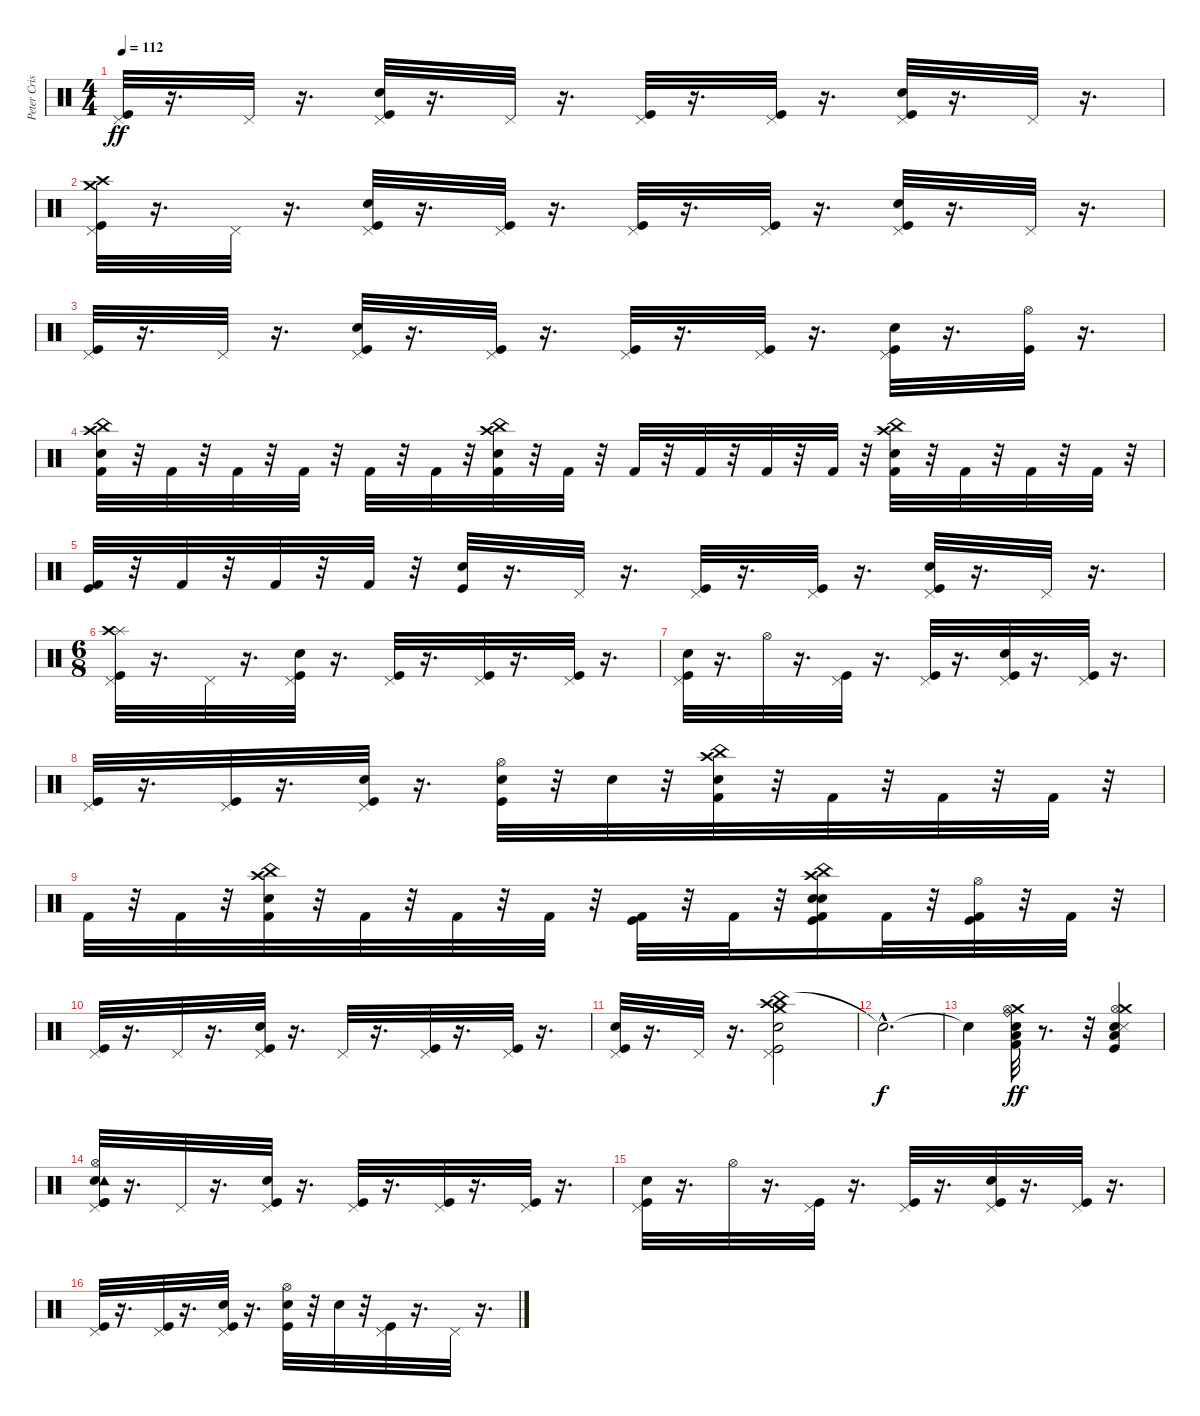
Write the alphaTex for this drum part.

\track ("Peter Criss" "Peter Cris") {instrument percussion}
\staff {score}
\articulation defaults
\ts (4 4)
\tempo 112
\clef neutral
\ks c
("Kick (hit)" "Pedal Hi-Hat (hit)").32{dy ff} r.16{d} "Pedal Hi-Hat (hit)".32 r.16{d} ("Snare (hit) 2" "Pedal Hi-Hat (hit)" "Kick (hit)").32 r.16{d} "Pedal Hi-Hat (hit)".32 r.16{d} ("Pedal Hi-Hat (hit)" "Kick (hit)").32 r.16{d} ("Pedal Hi-Hat (hit)" "Kick (hit)").32 r.16{d} ("Kick (hit)" "Snare (hit) 2" "Pedal Hi-Hat (hit)").32 r.16{d} "Pedal Hi-Hat (hit)".32 r.16{d} |
("Crash medium (hit)" "Crash high (hit)" "Kick (hit)" "Pedal Hi-Hat (hit)").32 r.16{d} "Pedal Hi-Hat (hit)".32 r.16{d} ("Kick (hit)" "Pedal Hi-Hat (hit)" "Snare (hit) 2").32 r.16{d} ("Kick (hit)" "Pedal Hi-Hat (hit)").32 r.16{d} ("Pedal Hi-Hat (hit)" "Kick (hit)").32 r.16{d} ("Pedal Hi-Hat (hit)" "Kick (hit)").32 r.16{d} ("Kick (hit)" "Snare (hit) 2" "Pedal Hi-Hat (hit)").32 r.16{d} "Pedal Hi-Hat (hit)".32 r.16{d} |
("Kick (hit)" "Pedal Hi-Hat (hit)").32 r.16{d} "Pedal Hi-Hat (hit)".32 r.16{d} ("Kick (hit)" "Snare (hit) 2" "Pedal Hi-Hat (hit)").32 r.16{d} ("Pedal Hi-Hat (hit)" "Kick (hit)").32 r.16{d} ("Kick (hit)" "Pedal Hi-Hat (hit)").32 r.16{d} ("Kick (hit)" "Pedal Hi-Hat (hit)").32 r.16{d} ("Kick (hit)" "Snare (hit) 2" "Pedal Hi-Hat (hit)").32 r.16{d} ("Hi-Hat (open)" "Kick (hit)").32 r.16{d} |
("Kick (hit) 2" "China (hit)" "Crash high (hit)" "Snare (hit) 2").32 r.32 "Kick (hit) 2".32 r.32 "Kick (hit) 2".32 r.32 "Kick (hit) 2".32 r.32 "Kick (hit) 2".32 r.32 "Kick (hit) 2".32 r.32 ("Kick (hit) 2" "China (hit)" "Crash high (hit)" "Snare (hit) 2").32 r.32 "Kick (hit) 2".32 r.32 "Kick (hit) 2".32 r.32 "Kick (hit) 2".32 r.32 "Kick (hit) 2".32 r.32 "Kick (hit) 2".32 r.32 ("Snare (hit) 2" "China (hit)" "Kick (hit) 2" "Crash high (hit)").32 r.32 "Kick (hit) 2".32 r.32 "Kick (hit) 2".32 r.32 "Kick (hit) 2".32 r.32 |
("Kick (hit)" "Kick (hit) 2").32 r.32 "Kick (hit) 2".32 r.32 "Kick (hit) 2".32 r.32 "Kick (hit) 2".32 r.32 ("Snare (hit) 2" "Kick (hit)").32 r.16{d} "Pedal Hi-Hat (hit)".32 r.16{d} ("Kick (hit)" "Pedal Hi-Hat (hit)").32 r.16{d} ("Pedal Hi-Hat (hit)" "Kick (hit)").32 r.16{d} ("Snare (hit) 2" "Pedal Hi-Hat (hit)" "Kick (hit)").32 r.16{d} "Pedal Hi-Hat (hit)".32 r.16{d} |
\ts (6 8)
("Kick (hit)" "Pedal Hi-Hat (hit)" "Splash (hit)" "Crash high (hit)").32 r.16{d} "Pedal Hi-Hat (hit)".32 r.16{d} ("Pedal Hi-Hat (hit)" "Snare (hit) 2" "Kick (hit)").32 r.16{d} ("Kick (hit)" "Pedal Hi-Hat (hit)").32 r.16{d} ("Kick (hit)" "Pedal Hi-Hat (hit)").32 r.16{d} ("Pedal Hi-Hat (hit)" "Kick (hit)").32 r.16{d} |
("Snare (hit) 2" "Kick (hit)" "Pedal Hi-Hat (hit)").32 r.16{d} "Hi-Hat (open)".32 r.16{d} ("Kick (hit)" "Pedal Hi-Hat (hit)").32 r.16{d} ("Pedal Hi-Hat (hit)" "Kick (hit)").32 r.16{d} ("Pedal Hi-Hat (hit)" "Kick (hit)" "Snare (hit) 2").32 r.16{d} ("Kick (hit)" "Pedal Hi-Hat (hit)").32 r.16{d} |
("Kick (hit)" "Pedal Hi-Hat (hit)").32 r.16{d} ("Kick (hit)" "Pedal Hi-Hat (hit)").32 r.16{d} ("Kick (hit)" "Snare (hit) 2" "Pedal Hi-Hat (hit)").32 r.16{d} ("Kick (hit)" "Snare (hit) 2" "Hi-Hat (open)").32 r.32 "Snare (hit) 2".32 r.32 ("Crash high (hit)" "Snare (hit) 2" "Kick (hit) 2" "China (hit)").32 r.32 "Kick (hit) 2".32 r.32 "Kick (hit) 2".32 r.32 "Kick (hit) 2".32 r.32 |
"Kick (hit) 2".32 r.32 "Kick (hit) 2".32 r.32 ("China (hit)" "Kick (hit) 2" "Snare (hit) 2" "Crash high (hit)").32 r.32 "Kick (hit) 2".32 r.32 "Kick (hit) 2".32 r.32 "Kick (hit) 2".32 r.32 ("Kick (hit) 2" "Kick (hit)").32 r.32 "Kick (hit) 2".32 r.32 ("China (hit)" "Snare (hit) 2" "Crash high (hit)" "Kick (hit) 2" "Snare (hit) 2" "Kick (hit)").16 "Kick (hit) 2".32 r.32 ("Kick (hit) 2" "Hi-Hat (open)" "Kick (hit)").32 r.32 "Kick (hit) 2".32 r.32 |
("Kick (hit)" "Pedal Hi-Hat (hit)").32 r.16{d} "Pedal Hi-Hat (hit)".32 r.16{d} ("Pedal Hi-Hat (hit)" "Snare (hit) 2" "Kick (hit)").32 r.16{d} "Pedal Hi-Hat (hit)".32 r.16{d} ("Kick (hit)" "Pedal Hi-Hat (hit)").32 r.16{d} ("Pedal Hi-Hat (hit)" "Kick (hit)").32 r.16{d} |
("Kick (hit)" "Snare (hit) 2" "Pedal Hi-Hat (hit)").32 r.16{d} "Pedal Hi-Hat (hit)".32 r.16{d} ("China (hit)" "Crash medium (hit)" "Kick (hit)" "Crash high (hit)" "Snare (hit) 2" "Pedal Hi-Hat (hit)").2 |
"Snare (hit)"{hac t}.2{d dy f} |
"Snare (hit)"{t}.4 ("Electric Snare (hit)" "Ride (bell)" "Kick (hit) 2" "Crash medium (hit)" "Low Tom (hit)" "Hi-Hat (open)").32{dy ff} r.8{d} r.32 ("Low Tom (hit)" "Hi-Hat (open)" "Electric Snare (hit)" "Crash medium (hit)" "Snare (side stick) 3" "Kick (hit)").4 |
("Electric Snare (hit)" "Pedal Hi-Hat (hit)" "Tambourine (hit)" "Hi-Hat (open)" "Kick (hit)" "Kick (hit)").32 r.16{d} "Pedal Hi-Hat (hit)".32 r.16{d} ("Pedal Hi-Hat (hit)" "Snare (hit) 2" "Kick (hit)").32 r.16{d} ("Kick (hit)" "Pedal Hi-Hat (hit)").32 r.16{d} ("Kick (hit)" "Pedal Hi-Hat (hit)").32 r.16{d} ("Kick (hit)" "Pedal Hi-Hat (hit)").32 r.16{d} |
("Snare (hit) 2" "Kick (hit)" "Pedal Hi-Hat (hit)").32 r.16{d} "Hi-Hat (open)".32 r.16{d} ("Kick (hit)" "Pedal Hi-Hat (hit)").32 r.16{d} ("Pedal Hi-Hat (hit)" "Kick (hit)").32 r.16{d} ("Kick (hit)" "Snare (hit) 2" "Pedal Hi-Hat (hit)").32 r.16{d} ("Pedal Hi-Hat (hit)" "Kick (hit)").32 r.16{d} |
("Pedal Hi-Hat (hit)" "Kick (hit)").32 r.16{d} ("Pedal Hi-Hat (hit)" "Kick (hit)").32 r.16{d} ("Pedal Hi-Hat (hit)" "Kick (hit)" "Snare (hit) 2").32 r.16{d} ("Hi-Hat (open)" "Snare (hit) 2" "Kick (hit)").32 r.32 "Snare (hit) 2".32 r.32 ("Kick (hit)" "Pedal Hi-Hat (hit)").32 r.16{d} "Pedal Hi-Hat (hit)".32 r.16{d}
